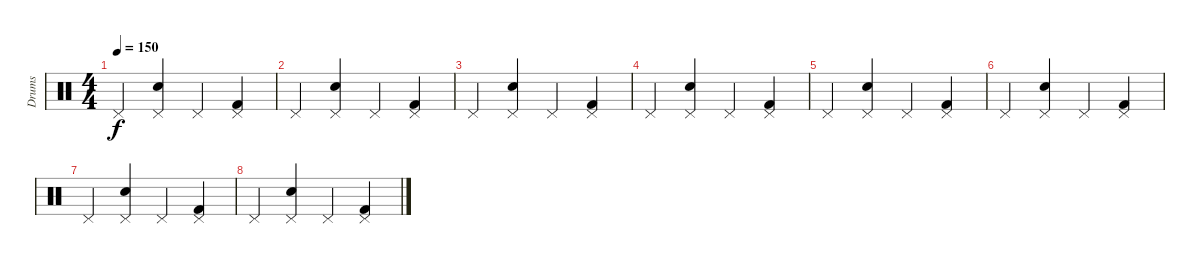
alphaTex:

\track ("Drums" "Drums") {instrument percussion}
\staff {score}
\articulation defaults
\ts (4 4)
\tempo 150
\clef neutral
\ks c "Pedal Hi-Hat (hit)".4{dy f}
("Pedal Hi-Hat (hit)" "Electric Snare (hit)").4 "Pedal Hi-Hat (hit)".4 ("Pedal Hi-Hat (hit)" "Kick (hit) 2").4 |
"Pedal Hi-Hat (hit)".4 ("Pedal Hi-Hat (hit)" "Electric Snare (hit)").4 "Pedal Hi-Hat (hit)".4 ("Pedal Hi-Hat (hit)" "Kick (hit) 2").4 |
"Pedal Hi-Hat (hit)".4 ("Pedal Hi-Hat (hit)" "Electric Snare (hit)").4 "Pedal Hi-Hat (hit)".4 ("Pedal Hi-Hat (hit)" "Kick (hit) 2").4 |
"Pedal Hi-Hat (hit)".4 ("Pedal Hi-Hat (hit)" "Electric Snare (hit)").4 "Pedal Hi-Hat (hit)".4 ("Pedal Hi-Hat (hit)" "Kick (hit) 2").4 |
"Pedal Hi-Hat (hit)".4 ("Pedal Hi-Hat (hit)" "Electric Snare (hit)").4 "Pedal Hi-Hat (hit)".4 ("Pedal Hi-Hat (hit)" "Kick (hit) 2").4 |
"Pedal Hi-Hat (hit)".4 ("Pedal Hi-Hat (hit)" "Electric Snare (hit)").4 "Pedal Hi-Hat (hit)".4 ("Pedal Hi-Hat (hit)" "Kick (hit) 2").4 |
"Pedal Hi-Hat (hit)".4 ("Pedal Hi-Hat (hit)" "Electric Snare (hit)").4 "Pedal Hi-Hat (hit)".4 ("Pedal Hi-Hat (hit)" "Kick (hit) 2").4 |
"Pedal Hi-Hat (hit)".4 ("Pedal Hi-Hat (hit)" "Electric Snare (hit)").4 "Pedal Hi-Hat (hit)".4 ("Pedal Hi-Hat (hit)" "Kick (hit) 2").4
